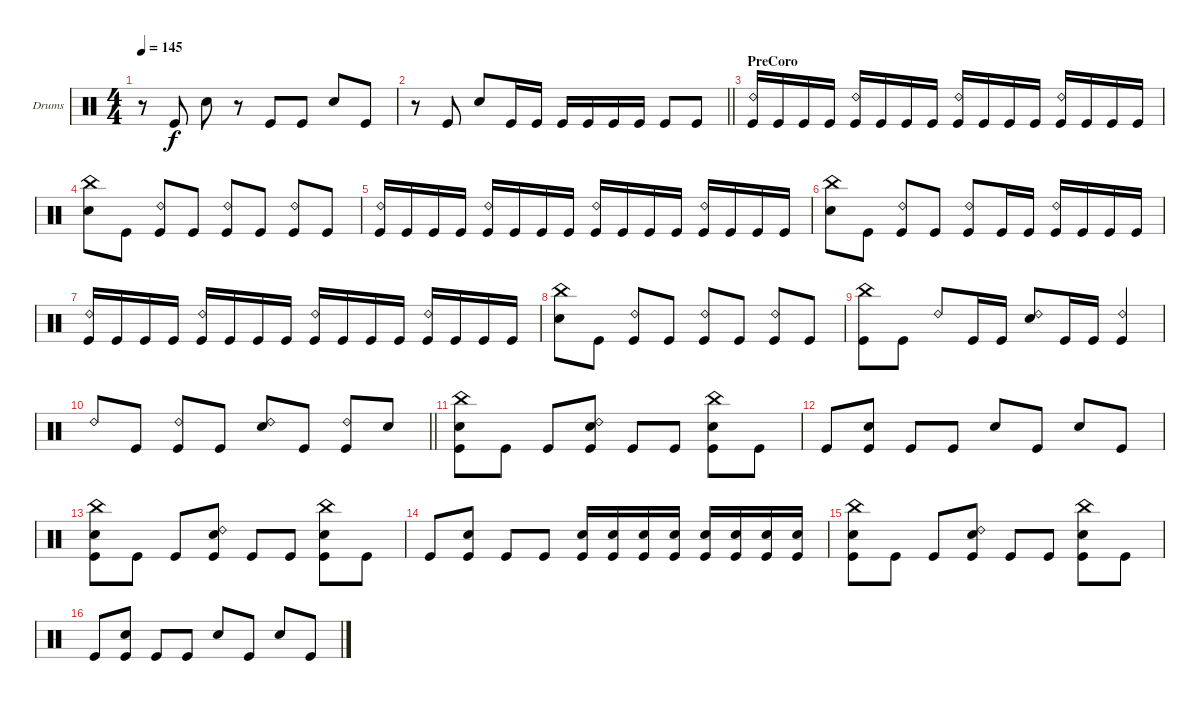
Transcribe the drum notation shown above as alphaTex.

\bracketExtendMode groupsimilarinstruments
\firstSystemTrackNameOrientation horizontal
\otherSystemsTrackNameOrientation horizontal
\track ("Drumkit" "Drums") {instrument percussion}
\staff {score}
\articulation defaults
\ts (4 4)
\tempo 145
\clef neutral
\ks c
r.8{dy f} "Kick (hit)".8 "Snare (hit) 2".8 r.8 "Kick (hit)".8 "Kick (hit)".8 "Snare (hit) 2".8 "Kick (hit)".8 |
\barLineRight lightlight
r.8 "Kick (hit)".8 "Snare (hit) 2".8 "Kick (hit)".16 "Kick (hit)".16 "Kick (hit)".16 "Kick (hit)".16 "Kick (hit)".16 "Kick (hit)".16 "Kick (hit)".8 "Kick (hit)".8 |
\section ("" "PreCoro")
("Ride (bell) 2" "Kick (hit)").16 "Kick (hit)".16 "Kick (hit)".16 "Kick (hit)".16 ("Ride (bell) 2" "Kick (hit)").16 "Kick (hit)".16 "Kick (hit)".16 "Kick (hit)".16 ("Ride (bell) 2" "Kick (hit)").16 "Kick (hit)".16 "Kick (hit)".16 "Kick (hit)".16 ("Ride (bell) 2" "Kick (hit)").16 "Kick (hit)".16 "Kick (hit)".16 "Kick (hit)".16 |
("China (hit)" "Snare (hit) 2").8 "Kick (hit)".8 ("Ride (bell) 2" "Kick (hit)").8 "Kick (hit)".8 ("Ride (bell) 2" "Kick (hit)").8 "Kick (hit)".8 ("Ride (bell) 2" "Kick (hit)").8 "Kick (hit)".8 |
("Ride (bell) 2" "Kick (hit)").16 "Kick (hit)".16 "Kick (hit)".16 "Kick (hit)".16 ("Ride (bell) 2" "Kick (hit)").16 "Kick (hit)".16 "Kick (hit)".16 "Kick (hit)".16 ("Ride (bell) 2" "Kick (hit)").16 "Kick (hit)".16 "Kick (hit)".16 "Kick (hit)".16 ("Ride (bell) 2" "Kick (hit)").16 "Kick (hit)".16 "Kick (hit)".16 "Kick (hit)".16 |
("China (hit)" "Snare (hit) 2").8 "Kick (hit)".8 ("Ride (bell) 2" "Kick (hit)").8 "Kick (hit)".8 ("Ride (bell) 2" "Kick (hit)").8 "Kick (hit)".16 "Kick (hit)".16 ("Ride (bell) 2" "Kick (hit)").16 "Kick (hit)".16 "Kick (hit)".16 "Kick (hit)".16 |
("Ride (bell) 2" "Kick (hit)").16 "Kick (hit)".16 "Kick (hit)".16 "Kick (hit)".16 ("Ride (bell) 2" "Kick (hit)").16 "Kick (hit)".16 "Kick (hit)".16 "Kick (hit)".16 ("Ride (bell) 2" "Kick (hit)").16 "Kick (hit)".16 "Kick (hit)".16 "Kick (hit)".16 ("Ride (bell) 2" "Kick (hit)").16 "Kick (hit)".16 "Kick (hit)".16 "Kick (hit)".16 |
("China (hit)" "Snare (hit) 2").8 "Kick (hit)".8 ("Ride (bell) 2" "Kick (hit)").8 "Kick (hit)".8 ("Ride (bell) 2" "Kick (hit)").8 "Kick (hit)".8 ("Ride (bell) 2" "Kick (hit)").8 "Kick (hit)".8 |
("China (hit)" "Kick (hit)").8 "Kick (hit)".8 "Ride (bell) 2".8 "Kick (hit)".16 "Kick (hit)".16 ("Ride (bell) 2" "Snare (hit) 2").8 "Kick (hit)".16 "Kick (hit)".16 ("Ride (bell) 2" "Kick (hit)").4 |
\barLineRight lightlight "Ride (bell) 2".8 "Kick (hit)".8
("Ride (bell) 2" "Kick (hit)").8 "Kick (hit)".8 ("Ride (bell) 2" "Snare (hit) 2").8 "Kick (hit)".8 ("Ride (bell) 2" "Kick (hit)").8 "Snare (hit) 2".8 |
("China (hit)" "Snare (hit) 2" "Kick (hit)").8 "Kick (hit)".8 "Kick (hit)".8 ("Ride (bell) 2" "Snare (hit) 2" "Kick (hit)").8 "Kick (hit)".8 "Kick (hit)".8 ("China (hit)" "Snare (hit) 2" "Kick (hit)").8 "Kick (hit)".8 |
"Kick (hit)".8 ("Snare (hit) 2" "Kick (hit)").8 "Kick (hit)".8 "Kick (hit)".8 "Snare (hit) 2".8 "Kick (hit)".8 "Snare (hit) 2".8 "Kick (hit)".8 |
("China (hit)" "Snare (hit) 2" "Kick (hit)").8 "Kick (hit)".8 "Kick (hit)".8 ("Ride (bell) 2" "Snare (hit) 2" "Kick (hit)").8 "Kick (hit)".8 "Kick (hit)".8 ("China (hit)" "Snare (hit) 2" "Kick (hit)").8 "Kick (hit)".8 |
"Kick (hit)".8 ("Snare (hit) 2" "Kick (hit)").8 "Kick (hit)".8 "Kick (hit)".8 ("Snare (hit) 2" "Kick (hit)").16 ("Snare (hit) 2" "Kick (hit)").16 ("Snare (hit) 2" "Kick (hit)").16 ("Snare (hit) 2" "Kick (hit)").16 ("Snare (hit) 2" "Kick (hit)").16 ("Snare (hit) 2" "Kick (hit)").16 ("Snare (hit) 2" "Kick (hit)").16 ("Snare (hit) 2" "Kick (hit)").16 |
("China (hit)" "Snare (hit) 2" "Kick (hit)").8 "Kick (hit)".8 "Kick (hit)".8 ("Ride (bell) 2" "Snare (hit) 2" "Kick (hit)").8 "Kick (hit)".8 "Kick (hit)".8 ("China (hit)" "Snare (hit) 2" "Kick (hit)").8 "Kick (hit)".8 |
"Kick (hit)".8 ("Snare (hit) 2" "Kick (hit)").8 "Kick (hit)".8 "Kick (hit)".8 "Snare (hit) 2".8 "Kick (hit)".8 "Snare (hit) 2".8 "Kick (hit)".8
